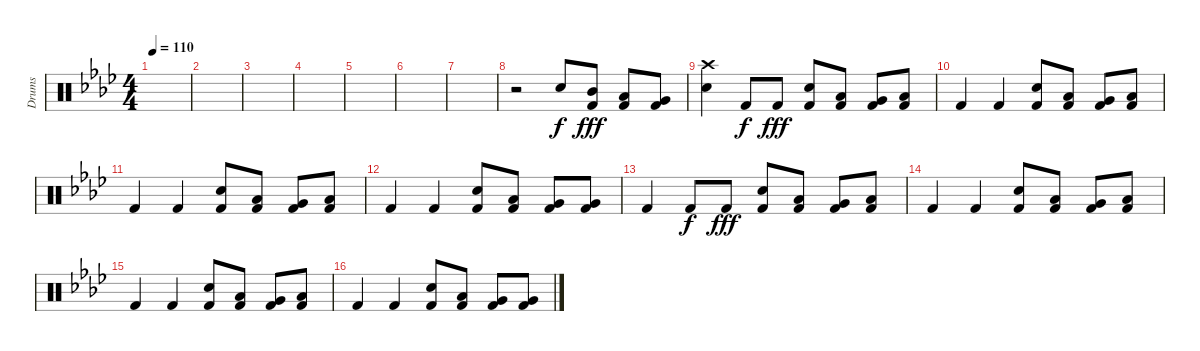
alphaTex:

\track ("Drums" "Drums") {instrument percussion}
\staff {score}
\articulation defaults
\ts (4 4)
\tempo 110
\clef neutral
\ks fminor
|
|
|
|
|
|
|
r.2 "Electric Snare (hit)".8{dy f} ("Mid Tom (hit)" "Kick (hit) 2").8{dy fff} ("Low Tom (hit)" "Kick (hit) 2").8 ("Very Low Tom (hit)" "Kick (hit) 2").8 |
("Crash high (hit)" "Electric Snare (hit)").4 "Kick (hit) 2".8{dy f} "Kick (hit) 2".8{dy fff} ("Electric Snare (hit)" "Kick (hit) 2").8 ("Low Tom (hit)" "Kick (hit) 2").8 ("Very Low Tom (hit)" "Kick (hit) 2").8 ("Low Tom (hit)" "Kick (hit) 2").8 |
"Kick (hit) 2".4 "Kick (hit) 2".4 ("Electric Snare (hit)" "Kick (hit) 2").8 ("Low Tom (hit)" "Kick (hit) 2").8 ("Very Low Tom (hit)" "Kick (hit) 2").8 ("Low Tom (hit)" "Kick (hit) 2").8 |
"Kick (hit) 2".4 "Kick (hit) 2".4 ("Electric Snare (hit)" "Kick (hit) 2").8 ("Low Tom (hit)" "Kick (hit) 2").8 ("Very Low Tom (hit)" "Kick (hit) 2").8 ("Low Tom (hit)" "Kick (hit) 2").8 |
"Kick (hit) 2".4 "Kick (hit) 2".4 ("Electric Snare (hit)" "Kick (hit) 2").8 ("Low Tom (hit)" "Kick (hit) 2").8 ("Very Low Tom (hit)" "Kick (hit) 2").8 ("Very Low Tom (hit)" "Kick (hit) 2").8 |
"Kick (hit) 2".4 "Kick (hit) 2".8{dy f} "Kick (hit) 2".8{dy fff} ("Electric Snare (hit)" "Kick (hit) 2").8 ("Low Tom (hit)" "Kick (hit) 2").8 ("Very Low Tom (hit)" "Kick (hit) 2").8 ("Low Tom (hit)" "Kick (hit) 2").8 |
"Kick (hit) 2".4 "Kick (hit) 2".4 ("Electric Snare (hit)" "Kick (hit) 2").8 ("Low Tom (hit)" "Kick (hit) 2").8 ("Very Low Tom (hit)" "Kick (hit) 2").8 ("Low Tom (hit)" "Kick (hit) 2").8 |
"Kick (hit) 2".4 "Kick (hit) 2".4 ("Electric Snare (hit)" "Kick (hit) 2").8 ("Low Tom (hit)" "Kick (hit) 2").8 ("Very Low Tom (hit)" "Kick (hit) 2").8 ("Low Tom (hit)" "Kick (hit) 2").8 |
"Kick (hit) 2".4 "Kick (hit) 2".4 ("Electric Snare (hit)" "Kick (hit) 2").8 ("Low Tom (hit)" "Kick (hit) 2").8 ("Very Low Tom (hit)" "Kick (hit) 2").8 ("Very Low Tom (hit)" "Kick (hit) 2").8
